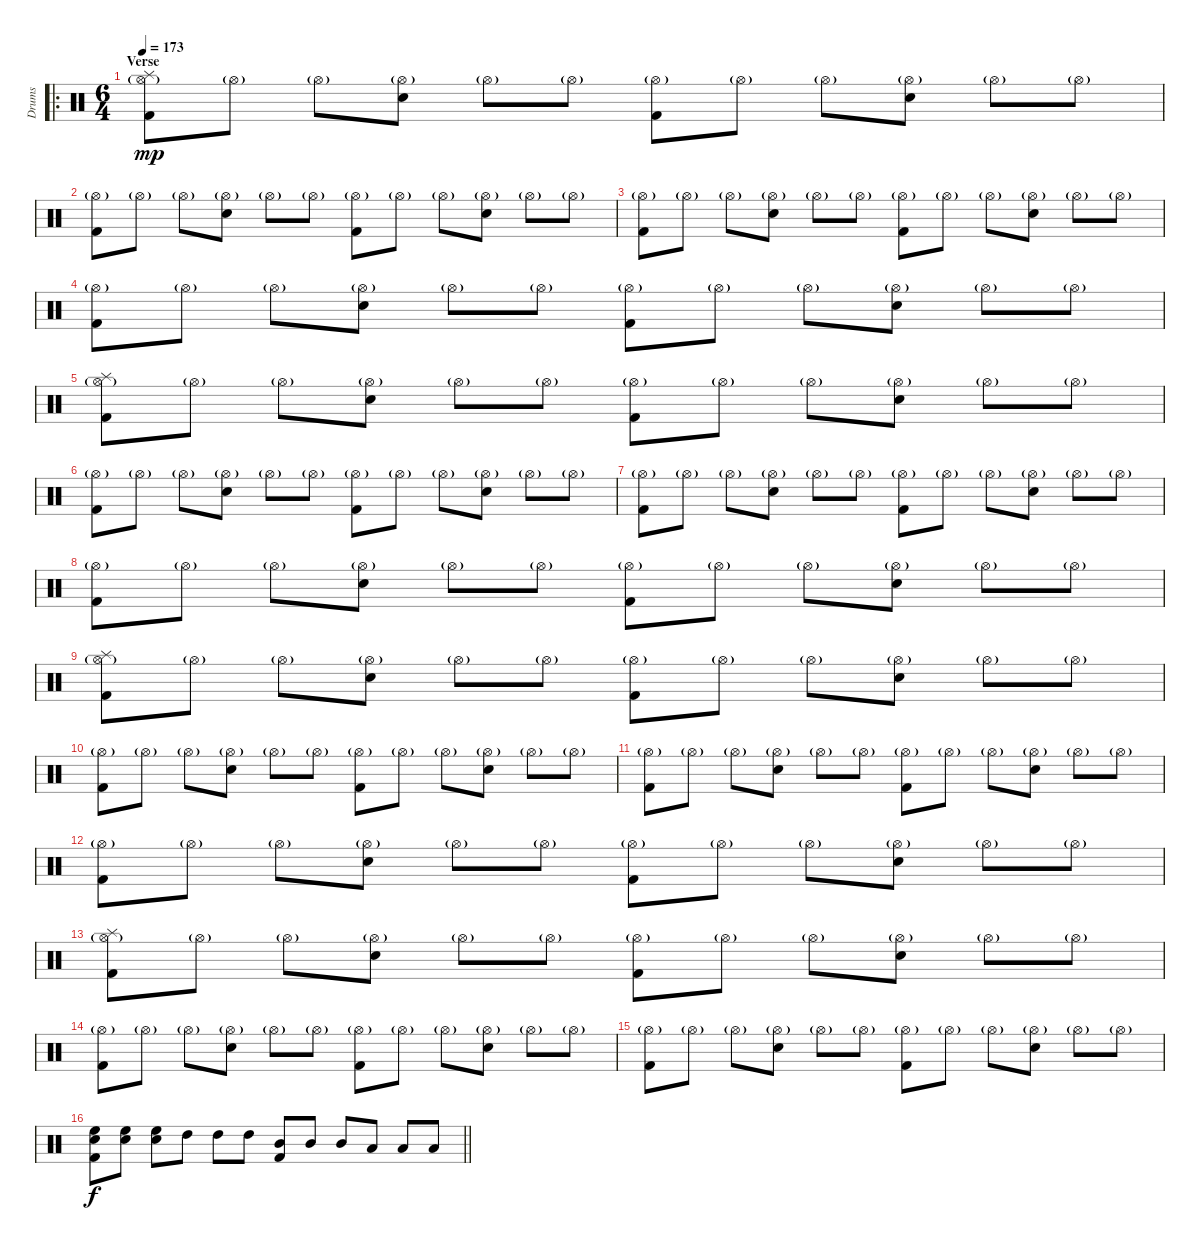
\track ("Drums" "Drums") {instrument percussion}
\staff {score}
\articulation defaults
\ro
\ts (6 4)
\section ("" "Verse")
\tempo 173
\clef neutral
\ks c
("Kick (hit) 2" "Hi-Hat (open)"{g} "Splash (hit)").8{dy mp} "Hi-Hat (open)"{g}.8 "Hi-Hat (open)"{g}.8 ("Snare (hit) 2" "Hi-Hat (open)"{g}).8 "Hi-Hat (open)"{g}.8 "Hi-Hat (open)"{g}.8 ("Kick (hit) 2" "Hi-Hat (open)"{g}).8 "Hi-Hat (open)"{g}.8 "Hi-Hat (open)"{g}.8 ("Snare (hit) 2" "Hi-Hat (open)"{g}).8 "Hi-Hat (open)"{g}.8 "Hi-Hat (open)"{g}.8 |
("Kick (hit) 2" "Hi-Hat (open)"{g}).8 "Hi-Hat (open)"{g}.8 "Hi-Hat (open)"{g}.8 ("Snare (hit) 2" "Hi-Hat (open)"{g}).8 "Hi-Hat (open)"{g}.8 "Hi-Hat (open)"{g}.8 ("Kick (hit) 2" "Hi-Hat (open)"{g}).8 "Hi-Hat (open)"{g}.8 "Hi-Hat (open)"{g}.8 ("Snare (hit) 2" "Hi-Hat (open)"{g}).8 "Hi-Hat (open)"{g}.8 "Hi-Hat (open)"{g}.8 |
("Kick (hit) 2" "Hi-Hat (open)"{g}).8 "Hi-Hat (open)"{g}.8 "Hi-Hat (open)"{g}.8 ("Snare (hit) 2" "Hi-Hat (open)"{g}).8 "Hi-Hat (open)"{g}.8 "Hi-Hat (open)"{g}.8 ("Kick (hit) 2" "Hi-Hat (open)"{g}).8 "Hi-Hat (open)"{g}.8 "Hi-Hat (open)"{g}.8 ("Snare (hit) 2" "Hi-Hat (open)"{g}).8 "Hi-Hat (open)"{g}.8 "Hi-Hat (open)"{g}.8 |
("Kick (hit) 2" "Hi-Hat (open)"{g}).8 "Hi-Hat (open)"{g}.8 "Hi-Hat (open)"{g}.8 ("Snare (hit) 2" "Hi-Hat (open)"{g}).8 "Hi-Hat (open)"{g}.8 "Hi-Hat (open)"{g}.8 ("Kick (hit) 2" "Hi-Hat (open)"{g}).8 "Hi-Hat (open)"{g}.8 "Hi-Hat (open)"{g}.8 ("Snare (hit) 2" "Hi-Hat (open)"{g}).8 "Hi-Hat (open)"{g}.8 "Hi-Hat (open)"{g}.8 |
("Kick (hit) 2" "Hi-Hat (open)"{g} "Splash (hit)").8 "Hi-Hat (open)"{g}.8 "Hi-Hat (open)"{g}.8 ("Snare (hit) 2" "Hi-Hat (open)"{g}).8 "Hi-Hat (open)"{g}.8 "Hi-Hat (open)"{g}.8 ("Kick (hit) 2" "Hi-Hat (open)"{g}).8 "Hi-Hat (open)"{g}.8 "Hi-Hat (open)"{g}.8 ("Snare (hit) 2" "Hi-Hat (open)"{g}).8 "Hi-Hat (open)"{g}.8 "Hi-Hat (open)"{g}.8 |
("Kick (hit) 2" "Hi-Hat (open)"{g}).8 "Hi-Hat (open)"{g}.8 "Hi-Hat (open)"{g}.8 ("Snare (hit) 2" "Hi-Hat (open)"{g}).8 "Hi-Hat (open)"{g}.8 "Hi-Hat (open)"{g}.8 ("Kick (hit) 2" "Hi-Hat (open)"{g}).8 "Hi-Hat (open)"{g}.8 "Hi-Hat (open)"{g}.8 ("Snare (hit) 2" "Hi-Hat (open)"{g}).8 "Hi-Hat (open)"{g}.8 "Hi-Hat (open)"{g}.8 |
("Kick (hit) 2" "Hi-Hat (open)"{g}).8 "Hi-Hat (open)"{g}.8 "Hi-Hat (open)"{g}.8 ("Snare (hit) 2" "Hi-Hat (open)"{g}).8 "Hi-Hat (open)"{g}.8 "Hi-Hat (open)"{g}.8 ("Kick (hit) 2" "Hi-Hat (open)"{g}).8 "Hi-Hat (open)"{g}.8 "Hi-Hat (open)"{g}.8 ("Snare (hit) 2" "Hi-Hat (open)"{g}).8 "Hi-Hat (open)"{g}.8 "Hi-Hat (open)"{g}.8 |
("Kick (hit) 2" "Hi-Hat (open)"{g}).8 "Hi-Hat (open)"{g}.8 "Hi-Hat (open)"{g}.8 ("Snare (hit) 2" "Hi-Hat (open)"{g}).8 "Hi-Hat (open)"{g}.8 "Hi-Hat (open)"{g}.8 ("Kick (hit) 2" "Hi-Hat (open)"{g}).8 "Hi-Hat (open)"{g}.8 "Hi-Hat (open)"{g}.8 ("Snare (hit) 2" "Hi-Hat (open)"{g}).8 "Hi-Hat (open)"{g}.8 "Hi-Hat (open)"{g}.8 |
("Kick (hit) 2" "Hi-Hat (open)"{g} "Splash (hit)").8 "Hi-Hat (open)"{g}.8 "Hi-Hat (open)"{g}.8 ("Snare (hit) 2" "Hi-Hat (open)"{g}).8 "Hi-Hat (open)"{g}.8 "Hi-Hat (open)"{g}.8 ("Kick (hit) 2" "Hi-Hat (open)"{g}).8 "Hi-Hat (open)"{g}.8 "Hi-Hat (open)"{g}.8 ("Snare (hit) 2" "Hi-Hat (open)"{g}).8 "Hi-Hat (open)"{g}.8 "Hi-Hat (open)"{g}.8 |
("Kick (hit) 2" "Hi-Hat (open)"{g}).8 "Hi-Hat (open)"{g}.8 "Hi-Hat (open)"{g}.8 ("Snare (hit) 2" "Hi-Hat (open)"{g}).8 "Hi-Hat (open)"{g}.8 "Hi-Hat (open)"{g}.8 ("Kick (hit) 2" "Hi-Hat (open)"{g}).8 "Hi-Hat (open)"{g}.8 "Hi-Hat (open)"{g}.8 ("Snare (hit) 2" "Hi-Hat (open)"{g}).8 "Hi-Hat (open)"{g}.8 "Hi-Hat (open)"{g}.8 |
("Kick (hit) 2" "Hi-Hat (open)"{g}).8 "Hi-Hat (open)"{g}.8 "Hi-Hat (open)"{g}.8 ("Snare (hit) 2" "Hi-Hat (open)"{g}).8 "Hi-Hat (open)"{g}.8 "Hi-Hat (open)"{g}.8 ("Kick (hit) 2" "Hi-Hat (open)"{g}).8 "Hi-Hat (open)"{g}.8 "Hi-Hat (open)"{g}.8 ("Snare (hit) 2" "Hi-Hat (open)"{g}).8 "Hi-Hat (open)"{g}.8 "Hi-Hat (open)"{g}.8 |
("Kick (hit) 2" "Hi-Hat (open)"{g}).8 "Hi-Hat (open)"{g}.8 "Hi-Hat (open)"{g}.8 ("Snare (hit) 2" "Hi-Hat (open)"{g}).8 "Hi-Hat (open)"{g}.8 "Hi-Hat (open)"{g}.8 ("Kick (hit) 2" "Hi-Hat (open)"{g}).8 "Hi-Hat (open)"{g}.8 "Hi-Hat (open)"{g}.8 ("Snare (hit) 2" "Hi-Hat (open)"{g}).8 "Hi-Hat (open)"{g}.8 "Hi-Hat (open)"{g}.8 |
("Kick (hit) 2" "Hi-Hat (open)"{g} "Splash (hit)").8 "Hi-Hat (open)"{g}.8 "Hi-Hat (open)"{g}.8 ("Snare (hit) 2" "Hi-Hat (open)"{g}).8 "Hi-Hat (open)"{g}.8 "Hi-Hat (open)"{g}.8 ("Kick (hit) 2" "Hi-Hat (open)"{g}).8 "Hi-Hat (open)"{g}.8 "Hi-Hat (open)"{g}.8 ("Snare (hit) 2" "Hi-Hat (open)"{g}).8 "Hi-Hat (open)"{g}.8 "Hi-Hat (open)"{g}.8 |
("Kick (hit) 2" "Hi-Hat (open)"{g}).8 "Hi-Hat (open)"{g}.8 "Hi-Hat (open)"{g}.8 ("Snare (hit) 2" "Hi-Hat (open)"{g}).8 "Hi-Hat (open)"{g}.8 "Hi-Hat (open)"{g}.8 ("Kick (hit) 2" "Hi-Hat (open)"{g}).8 "Hi-Hat (open)"{g}.8 "Hi-Hat (open)"{g}.8 ("Snare (hit) 2" "Hi-Hat (open)"{g}).8 "Hi-Hat (open)"{g}.8 "Hi-Hat (open)"{g}.8 |
("Kick (hit) 2" "Hi-Hat (open)"{g}).8 "Hi-Hat (open)"{g}.8 "Hi-Hat (open)"{g}.8 ("Snare (hit) 2" "Hi-Hat (open)"{g}).8 "Hi-Hat (open)"{g}.8 "Hi-Hat (open)"{g}.8 ("Kick (hit) 2" "Hi-Hat (open)"{g}).8 "Hi-Hat (open)"{g}.8 "Hi-Hat (open)"{g}.8 ("Snare (hit) 2" "Hi-Hat (open)"{g}).8 "Hi-Hat (open)"{g}.8 "Hi-Hat (open)"{g}.8 |
\barLineRight lightlight
("Kick (hit) 2" "Snare (hit) 2" "High Floor Tom (hit)").8{dy f} ("Snare (hit) 2" "High Floor Tom (hit)").8 ("Snare (hit) 2" "High Floor Tom (hit)").8 "High Tom (hit)".8 "High Tom (hit)".8 "High Tom (hit)".8 ("Kick (hit) 2" "Mid Tom (hit)").8 "Mid Tom (hit)".8 "Mid Tom (hit)".8 "Low Tom (hit)".8 "Low Tom (hit)".8 "Low Tom (hit)".8
